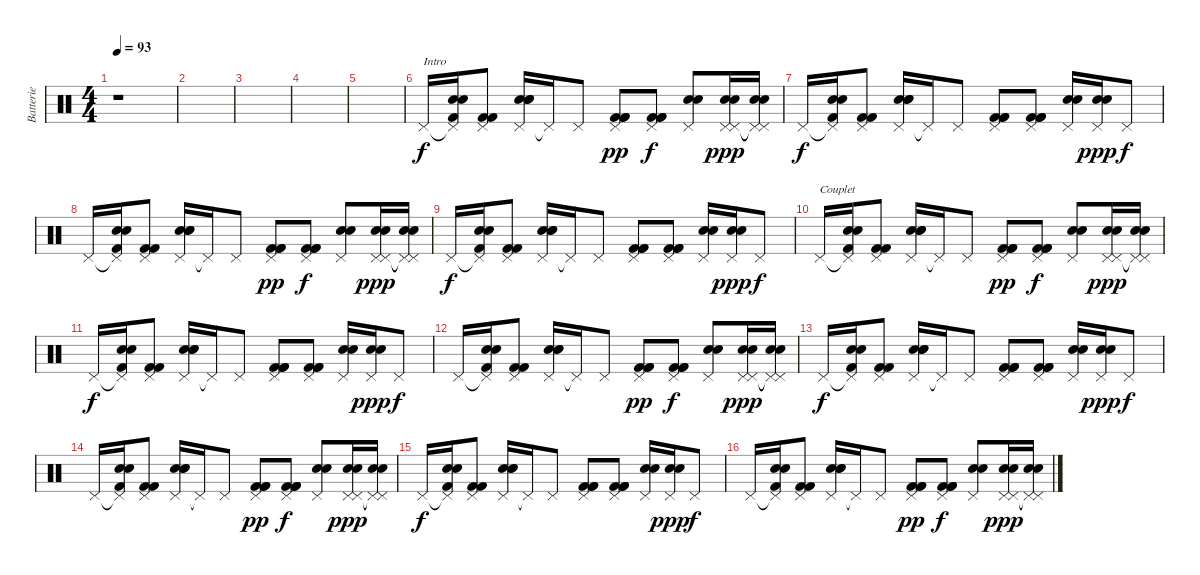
\track ("Batterie" "Batterie") {instrument percussion}
\staff {score}
\articulation defaults
\ts (4 4)
\tempo 93
\clef neutral
\ks c
r.1{dy f} |
|
|
|
|
"Pedal Hi-Hat (hit)".16{txt "Intro"} ("Pedal Hi-Hat (hit)"{t} "Snare (hit) 2" "Snare (hit) 2" "Kick (hit) 2").16 ("Pedal Hi-Hat (hit)" "Kick (hit) 2" "Kick (hit) 2").8 ("Pedal Hi-Hat (hit)" "Snare (hit) 2" "Snare (hit) 2" "Snare (hit) 2").16 "Pedal Hi-Hat (hit)"{t}.16 "Pedal Hi-Hat (hit)".8 ("Pedal Hi-Hat (hit)" "Kick (hit) 2" "Kick (hit) 2" "Kick (hit) 2").8{dy pp} ("Pedal Hi-Hat (hit)" "Kick (hit) 2" "Kick (hit) 2" "Kick (hit) 2").8{dy f} ("Pedal Hi-Hat (hit)" "Snare (hit) 2" "Snare (hit) 2").8 ("Pedal Hi-Hat (hit)" "Pedal Hi-Hat (hit)" "Snare (hit) 2" "Snare (hit) 2").16{dy ppp} ("Pedal Hi-Hat (hit)"{t} "Pedal Hi-Hat (hit)"{t} "Snare (hit) 2" "Snare (hit) 2").16 |
"Pedal Hi-Hat (hit)".16{dy f} ("Pedal Hi-Hat (hit)"{t} "Snare (hit) 2" "Snare (hit) 2" "Kick (hit) 2").16 ("Pedal Hi-Hat (hit)" "Kick (hit) 2" "Kick (hit) 2").8 ("Pedal Hi-Hat (hit)" "Snare (hit) 2" "Snare (hit) 2" "Snare (hit) 2").16 "Pedal Hi-Hat (hit)"{t}.16 "Pedal Hi-Hat (hit)".8 ("Pedal Hi-Hat (hit)" "Kick (hit) 2" "Kick (hit) 2" "Kick (hit) 2").8 ("Pedal Hi-Hat (hit)" "Kick (hit) 2" "Kick (hit) 2" "Kick (hit) 2").8 ("Pedal Hi-Hat (hit)" "Snare (hit) 2" "Snare (hit) 2").16 ("Pedal Hi-Hat (hit)" "Snare (hit) 2" "Snare (hit) 2").16{dy ppp} "Pedal Hi-Hat (hit)".8{dy f} |
"Pedal Hi-Hat (hit)".16 ("Pedal Hi-Hat (hit)"{t} "Snare (hit) 2" "Snare (hit) 2" "Kick (hit) 2").16 ("Pedal Hi-Hat (hit)" "Kick (hit) 2" "Kick (hit) 2").8 ("Pedal Hi-Hat (hit)" "Snare (hit) 2" "Snare (hit) 2" "Snare (hit) 2").16 "Pedal Hi-Hat (hit)"{t}.16 "Pedal Hi-Hat (hit)".8 ("Pedal Hi-Hat (hit)" "Kick (hit) 2" "Kick (hit) 2" "Kick (hit) 2").8{dy pp} ("Pedal Hi-Hat (hit)" "Kick (hit) 2" "Kick (hit) 2" "Kick (hit) 2").8{dy f} ("Pedal Hi-Hat (hit)" "Snare (hit) 2" "Snare (hit) 2").8 ("Pedal Hi-Hat (hit)" "Pedal Hi-Hat (hit)" "Snare (hit) 2" "Snare (hit) 2").16{dy ppp} ("Pedal Hi-Hat (hit)"{t} "Pedal Hi-Hat (hit)"{t} "Snare (hit) 2" "Snare (hit) 2").16 |
"Pedal Hi-Hat (hit)".16{dy f} ("Pedal Hi-Hat (hit)"{t} "Snare (hit) 2" "Snare (hit) 2" "Kick (hit) 2").16 ("Pedal Hi-Hat (hit)" "Kick (hit) 2" "Kick (hit) 2").8 ("Pedal Hi-Hat (hit)" "Snare (hit) 2" "Snare (hit) 2" "Snare (hit) 2").16 "Pedal Hi-Hat (hit)"{t}.16 "Pedal Hi-Hat (hit)".8 ("Pedal Hi-Hat (hit)" "Kick (hit) 2" "Kick (hit) 2" "Kick (hit) 2").8 ("Pedal Hi-Hat (hit)" "Kick (hit) 2" "Kick (hit) 2" "Kick (hit) 2").8 ("Pedal Hi-Hat (hit)" "Snare (hit) 2" "Snare (hit) 2").16 ("Pedal Hi-Hat (hit)" "Snare (hit) 2" "Snare (hit) 2").16{dy ppp} "Pedal Hi-Hat (hit)".8{dy f} |
"Pedal Hi-Hat (hit)".16{txt "Couplet"} ("Pedal Hi-Hat (hit)"{t} "Snare (hit) 2" "Snare (hit) 2" "Kick (hit) 2").16 ("Pedal Hi-Hat (hit)" "Kick (hit) 2" "Kick (hit) 2").8 ("Pedal Hi-Hat (hit)" "Snare (hit) 2" "Snare (hit) 2" "Snare (hit) 2").16 "Pedal Hi-Hat (hit)"{t}.16 "Pedal Hi-Hat (hit)".8 ("Pedal Hi-Hat (hit)" "Kick (hit) 2" "Kick (hit) 2" "Kick (hit) 2").8{dy pp} ("Pedal Hi-Hat (hit)" "Kick (hit) 2" "Kick (hit) 2" "Kick (hit) 2").8{dy f} ("Pedal Hi-Hat (hit)" "Snare (hit) 2" "Snare (hit) 2").8 ("Pedal Hi-Hat (hit)" "Pedal Hi-Hat (hit)" "Snare (hit) 2" "Snare (hit) 2").16{dy ppp} ("Pedal Hi-Hat (hit)"{t} "Pedal Hi-Hat (hit)"{t} "Snare (hit) 2" "Snare (hit) 2").16 |
"Pedal Hi-Hat (hit)".16{dy f} ("Pedal Hi-Hat (hit)"{t} "Snare (hit) 2" "Snare (hit) 2" "Kick (hit) 2").16 ("Pedal Hi-Hat (hit)" "Kick (hit) 2" "Kick (hit) 2").8 ("Pedal Hi-Hat (hit)" "Snare (hit) 2" "Snare (hit) 2" "Snare (hit) 2").16 "Pedal Hi-Hat (hit)"{t}.16 "Pedal Hi-Hat (hit)".8 ("Pedal Hi-Hat (hit)" "Kick (hit) 2" "Kick (hit) 2" "Kick (hit) 2").8 ("Pedal Hi-Hat (hit)" "Kick (hit) 2" "Kick (hit) 2" "Kick (hit) 2").8 ("Pedal Hi-Hat (hit)" "Snare (hit) 2" "Snare (hit) 2").16 ("Pedal Hi-Hat (hit)" "Snare (hit) 2" "Snare (hit) 2").16{dy ppp} "Pedal Hi-Hat (hit)".8{dy f} |
"Pedal Hi-Hat (hit)".16 ("Pedal Hi-Hat (hit)"{t} "Snare (hit) 2" "Snare (hit) 2" "Kick (hit) 2").16 ("Pedal Hi-Hat (hit)" "Kick (hit) 2" "Kick (hit) 2").8 ("Pedal Hi-Hat (hit)" "Snare (hit) 2" "Snare (hit) 2" "Snare (hit) 2").16 "Pedal Hi-Hat (hit)"{t}.16 "Pedal Hi-Hat (hit)".8 ("Pedal Hi-Hat (hit)" "Kick (hit) 2" "Kick (hit) 2" "Kick (hit) 2").8{dy pp} ("Pedal Hi-Hat (hit)" "Kick (hit) 2" "Kick (hit) 2" "Kick (hit) 2").8{dy f} ("Pedal Hi-Hat (hit)" "Snare (hit) 2" "Snare (hit) 2").8 ("Pedal Hi-Hat (hit)" "Pedal Hi-Hat (hit)" "Snare (hit) 2" "Snare (hit) 2").16{dy ppp} ("Pedal Hi-Hat (hit)"{t} "Pedal Hi-Hat (hit)"{t} "Snare (hit) 2" "Snare (hit) 2").16 |
"Pedal Hi-Hat (hit)".16{dy f} ("Pedal Hi-Hat (hit)"{t} "Snare (hit) 2" "Snare (hit) 2" "Kick (hit) 2").16 ("Pedal Hi-Hat (hit)" "Kick (hit) 2" "Kick (hit) 2").8 ("Pedal Hi-Hat (hit)" "Snare (hit) 2" "Snare (hit) 2" "Snare (hit) 2").16 "Pedal Hi-Hat (hit)"{t}.16 "Pedal Hi-Hat (hit)".8 ("Pedal Hi-Hat (hit)" "Kick (hit) 2" "Kick (hit) 2" "Kick (hit) 2").8 ("Pedal Hi-Hat (hit)" "Kick (hit) 2" "Kick (hit) 2" "Kick (hit) 2").8 ("Pedal Hi-Hat (hit)" "Snare (hit) 2" "Snare (hit) 2").16 ("Pedal Hi-Hat (hit)" "Snare (hit) 2" "Snare (hit) 2").16{dy ppp} "Pedal Hi-Hat (hit)".8{dy f} |
"Pedal Hi-Hat (hit)".16 ("Pedal Hi-Hat (hit)"{t} "Snare (hit) 2" "Snare (hit) 2" "Kick (hit) 2").16 ("Pedal Hi-Hat (hit)" "Kick (hit) 2" "Kick (hit) 2").8 ("Pedal Hi-Hat (hit)" "Snare (hit) 2" "Snare (hit) 2" "Snare (hit) 2").16 "Pedal Hi-Hat (hit)"{t}.16 "Pedal Hi-Hat (hit)".8 ("Pedal Hi-Hat (hit)" "Kick (hit) 2" "Kick (hit) 2" "Kick (hit) 2").8{dy pp} ("Pedal Hi-Hat (hit)" "Kick (hit) 2" "Kick (hit) 2" "Kick (hit) 2").8{dy f} ("Pedal Hi-Hat (hit)" "Snare (hit) 2" "Snare (hit) 2").8 ("Pedal Hi-Hat (hit)" "Pedal Hi-Hat (hit)" "Snare (hit) 2" "Snare (hit) 2").16{dy ppp} ("Pedal Hi-Hat (hit)"{t} "Pedal Hi-Hat (hit)"{t} "Snare (hit) 2" "Snare (hit) 2").16 |
"Pedal Hi-Hat (hit)".16{dy f} ("Pedal Hi-Hat (hit)"{t} "Snare (hit) 2" "Snare (hit) 2" "Kick (hit) 2").16 ("Pedal Hi-Hat (hit)" "Kick (hit) 2" "Kick (hit) 2").8 ("Pedal Hi-Hat (hit)" "Snare (hit) 2" "Snare (hit) 2" "Snare (hit) 2").16 "Pedal Hi-Hat (hit)"{t}.16 "Pedal Hi-Hat (hit)".8 ("Pedal Hi-Hat (hit)" "Kick (hit) 2" "Kick (hit) 2" "Kick (hit) 2").8 ("Pedal Hi-Hat (hit)" "Kick (hit) 2" "Kick (hit) 2" "Kick (hit) 2").8 ("Pedal Hi-Hat (hit)" "Snare (hit) 2" "Snare (hit) 2").16 ("Pedal Hi-Hat (hit)" "Snare (hit) 2" "Snare (hit) 2").16{dy ppp} "Pedal Hi-Hat (hit)".8{dy f} |
"Pedal Hi-Hat (hit)".16 ("Pedal Hi-Hat (hit)"{t} "Snare (hit) 2" "Snare (hit) 2" "Kick (hit) 2").16 ("Pedal Hi-Hat (hit)" "Kick (hit) 2" "Kick (hit) 2").8 ("Pedal Hi-Hat (hit)" "Snare (hit) 2" "Snare (hit) 2" "Snare (hit) 2").16 "Pedal Hi-Hat (hit)"{t}.16 "Pedal Hi-Hat (hit)".8 ("Pedal Hi-Hat (hit)" "Kick (hit) 2" "Kick (hit) 2" "Kick (hit) 2").8{dy pp} ("Pedal Hi-Hat (hit)" "Kick (hit) 2" "Kick (hit) 2" "Kick (hit) 2").8{dy f} ("Pedal Hi-Hat (hit)" "Snare (hit) 2" "Snare (hit) 2").8 ("Pedal Hi-Hat (hit)" "Pedal Hi-Hat (hit)" "Snare (hit) 2" "Snare (hit) 2").16{dy ppp} ("Pedal Hi-Hat (hit)"{t} "Pedal Hi-Hat (hit)"{t} "Snare (hit) 2" "Snare (hit) 2").16
